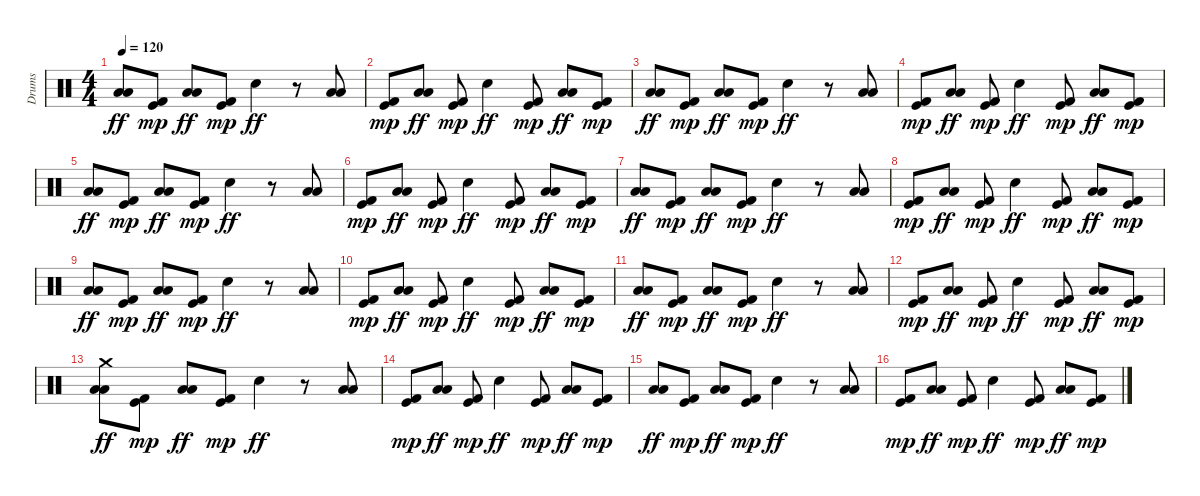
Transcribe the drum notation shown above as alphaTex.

\track ("Drums" "Drums") {instrument percussion}
\staff {score}
\articulation defaults
\ts (4 4)
\tempo 120
\clef neutral
\ks c
("Low Tom (hit)" "Low Floor Tom (hit)").8{dy ff} ("Kick (hit)" "Kick (hit) 2").8{dy mp} ("Low Tom (hit)" "Low Floor Tom (hit)").8{dy ff} ("Kick (hit)" "Kick (hit) 2").8{dy mp} "Snare (hit) 2".4{dy ff} r.8 ("Low Tom (hit)" "Low Floor Tom (hit)").8 |
("Kick (hit)" "Kick (hit) 2").8{dy mp} ("Low Tom (hit)" "Low Floor Tom (hit)").8{dy ff} ("Kick (hit)" "Kick (hit) 2").8{dy mp} "Snare (hit) 2".4{dy ff} ("Kick (hit)" "Kick (hit) 2").8{dy mp} ("Low Tom (hit)" "Low Floor Tom (hit)").8{dy ff} ("Kick (hit)" "Kick (hit) 2").8{dy mp} |
("Low Tom (hit)" "Low Floor Tom (hit)").8{dy ff} ("Kick (hit)" "Kick (hit) 2").8{dy mp} ("Low Tom (hit)" "Low Floor Tom (hit)").8{dy ff} ("Kick (hit)" "Kick (hit) 2").8{dy mp} "Snare (hit) 2".4{dy ff} r.8 ("Low Tom (hit)" "Low Floor Tom (hit)").8 |
("Kick (hit)" "Kick (hit) 2").8{dy mp} ("Low Tom (hit)" "Low Floor Tom (hit)").8{dy ff} ("Kick (hit)" "Kick (hit) 2").8{dy mp} "Snare (hit) 2".4{dy ff} ("Kick (hit)" "Kick (hit) 2").8{dy mp} ("Low Tom (hit)" "Low Floor Tom (hit)").8{dy ff} ("Kick (hit)" "Kick (hit) 2").8{dy mp} |
("Low Tom (hit)" "Low Floor Tom (hit)").8{dy ff} ("Kick (hit)" "Kick (hit) 2").8{dy mp} ("Low Tom (hit)" "Low Floor Tom (hit)").8{dy ff} ("Kick (hit)" "Kick (hit) 2").8{dy mp} "Snare (hit) 2".4{dy ff} r.8 ("Low Tom (hit)" "Low Floor Tom (hit)").8 |
("Kick (hit)" "Kick (hit) 2").8{dy mp} ("Low Tom (hit)" "Low Floor Tom (hit)").8{dy ff} ("Kick (hit)" "Kick (hit) 2").8{dy mp} "Snare (hit) 2".4{dy ff} ("Kick (hit)" "Kick (hit) 2").8{dy mp} ("Low Tom (hit)" "Low Floor Tom (hit)").8{dy ff} ("Kick (hit)" "Kick (hit) 2").8{dy mp} |
("Low Tom (hit)" "Low Floor Tom (hit)").8{dy ff} ("Kick (hit)" "Kick (hit) 2").8{dy mp} ("Low Tom (hit)" "Low Floor Tom (hit)").8{dy ff} ("Kick (hit)" "Kick (hit) 2").8{dy mp} "Snare (hit) 2".4{dy ff} r.8 ("Low Tom (hit)" "Low Floor Tom (hit)").8 |
("Kick (hit)" "Kick (hit) 2").8{dy mp} ("Low Tom (hit)" "Low Floor Tom (hit)").8{dy ff} ("Kick (hit)" "Kick (hit) 2").8{dy mp} "Snare (hit) 2".4{dy ff} ("Kick (hit)" "Kick (hit) 2").8{dy mp} ("Low Tom (hit)" "Low Floor Tom (hit)").8{dy ff} ("Kick (hit)" "Kick (hit) 2").8{dy mp} |
("Low Tom (hit)" "Low Floor Tom (hit)").8{dy ff} ("Kick (hit)" "Kick (hit) 2").8{dy mp} ("Low Tom (hit)" "Low Floor Tom (hit)").8{dy ff} ("Kick (hit)" "Kick (hit) 2").8{dy mp} "Snare (hit) 2".4{dy ff} r.8 ("Low Tom (hit)" "Low Floor Tom (hit)").8 |
("Kick (hit)" "Kick (hit) 2").8{dy mp} ("Low Tom (hit)" "Low Floor Tom (hit)").8{dy ff} ("Kick (hit)" "Kick (hit) 2").8{dy mp} "Snare (hit) 2".4{dy ff} ("Kick (hit)" "Kick (hit) 2").8{dy mp} ("Low Tom (hit)" "Low Floor Tom (hit)").8{dy ff} ("Kick (hit)" "Kick (hit) 2").8{dy mp} |
("Low Tom (hit)" "Low Floor Tom (hit)").8{dy ff} ("Kick (hit)" "Kick (hit) 2").8{dy mp} ("Low Tom (hit)" "Low Floor Tom (hit)").8{dy ff} ("Kick (hit)" "Kick (hit) 2").8{dy mp} "Snare (hit) 2".4{dy ff} r.8 ("Low Tom (hit)" "Low Floor Tom (hit)").8 |
("Kick (hit)" "Kick (hit) 2").8{dy mp} ("Low Tom (hit)" "Low Floor Tom (hit)").8{dy ff} ("Kick (hit)" "Kick (hit) 2").8{dy mp} "Snare (hit) 2".4{dy ff} ("Kick (hit)" "Kick (hit) 2").8{dy mp} ("Low Tom (hit)" "Low Floor Tom (hit)").8{dy ff} ("Kick (hit)" "Kick (hit) 2").8{dy mp} |
("Low Tom (hit)" "Low Floor Tom (hit)" "Crash medium (hit)").8{dy ff} ("Kick (hit)" "Kick (hit) 2").8{dy mp} ("Low Tom (hit)" "Low Floor Tom (hit)").8{dy ff} ("Kick (hit)" "Kick (hit) 2").8{dy mp} "Snare (hit) 2".4{dy ff} r.8 ("Low Tom (hit)" "Low Floor Tom (hit)").8 |
("Kick (hit)" "Kick (hit) 2").8{dy mp} ("Low Tom (hit)" "Low Floor Tom (hit)").8{dy ff} ("Kick (hit)" "Kick (hit) 2").8{dy mp} "Snare (hit) 2".4{dy ff} ("Kick (hit)" "Kick (hit) 2").8{dy mp} ("Low Tom (hit)" "Low Floor Tom (hit)").8{dy ff} ("Kick (hit)" "Kick (hit) 2").8{dy mp} |
("Low Tom (hit)" "Low Floor Tom (hit)").8{dy ff} ("Kick (hit)" "Kick (hit) 2").8{dy mp} ("Low Tom (hit)" "Low Floor Tom (hit)").8{dy ff} ("Kick (hit)" "Kick (hit) 2").8{dy mp} "Snare (hit) 2".4{dy ff} r.8 ("Low Tom (hit)" "Low Floor Tom (hit)").8 |
("Kick (hit)" "Kick (hit) 2").8{dy mp} ("Low Tom (hit)" "Low Floor Tom (hit)").8{dy ff} ("Kick (hit)" "Kick (hit) 2").8{dy mp} "Snare (hit) 2".4{dy ff} ("Kick (hit)" "Kick (hit) 2").8{dy mp} ("Low Tom (hit)" "Low Floor Tom (hit)").8{dy ff} ("Kick (hit)" "Kick (hit) 2").8{dy mp}
